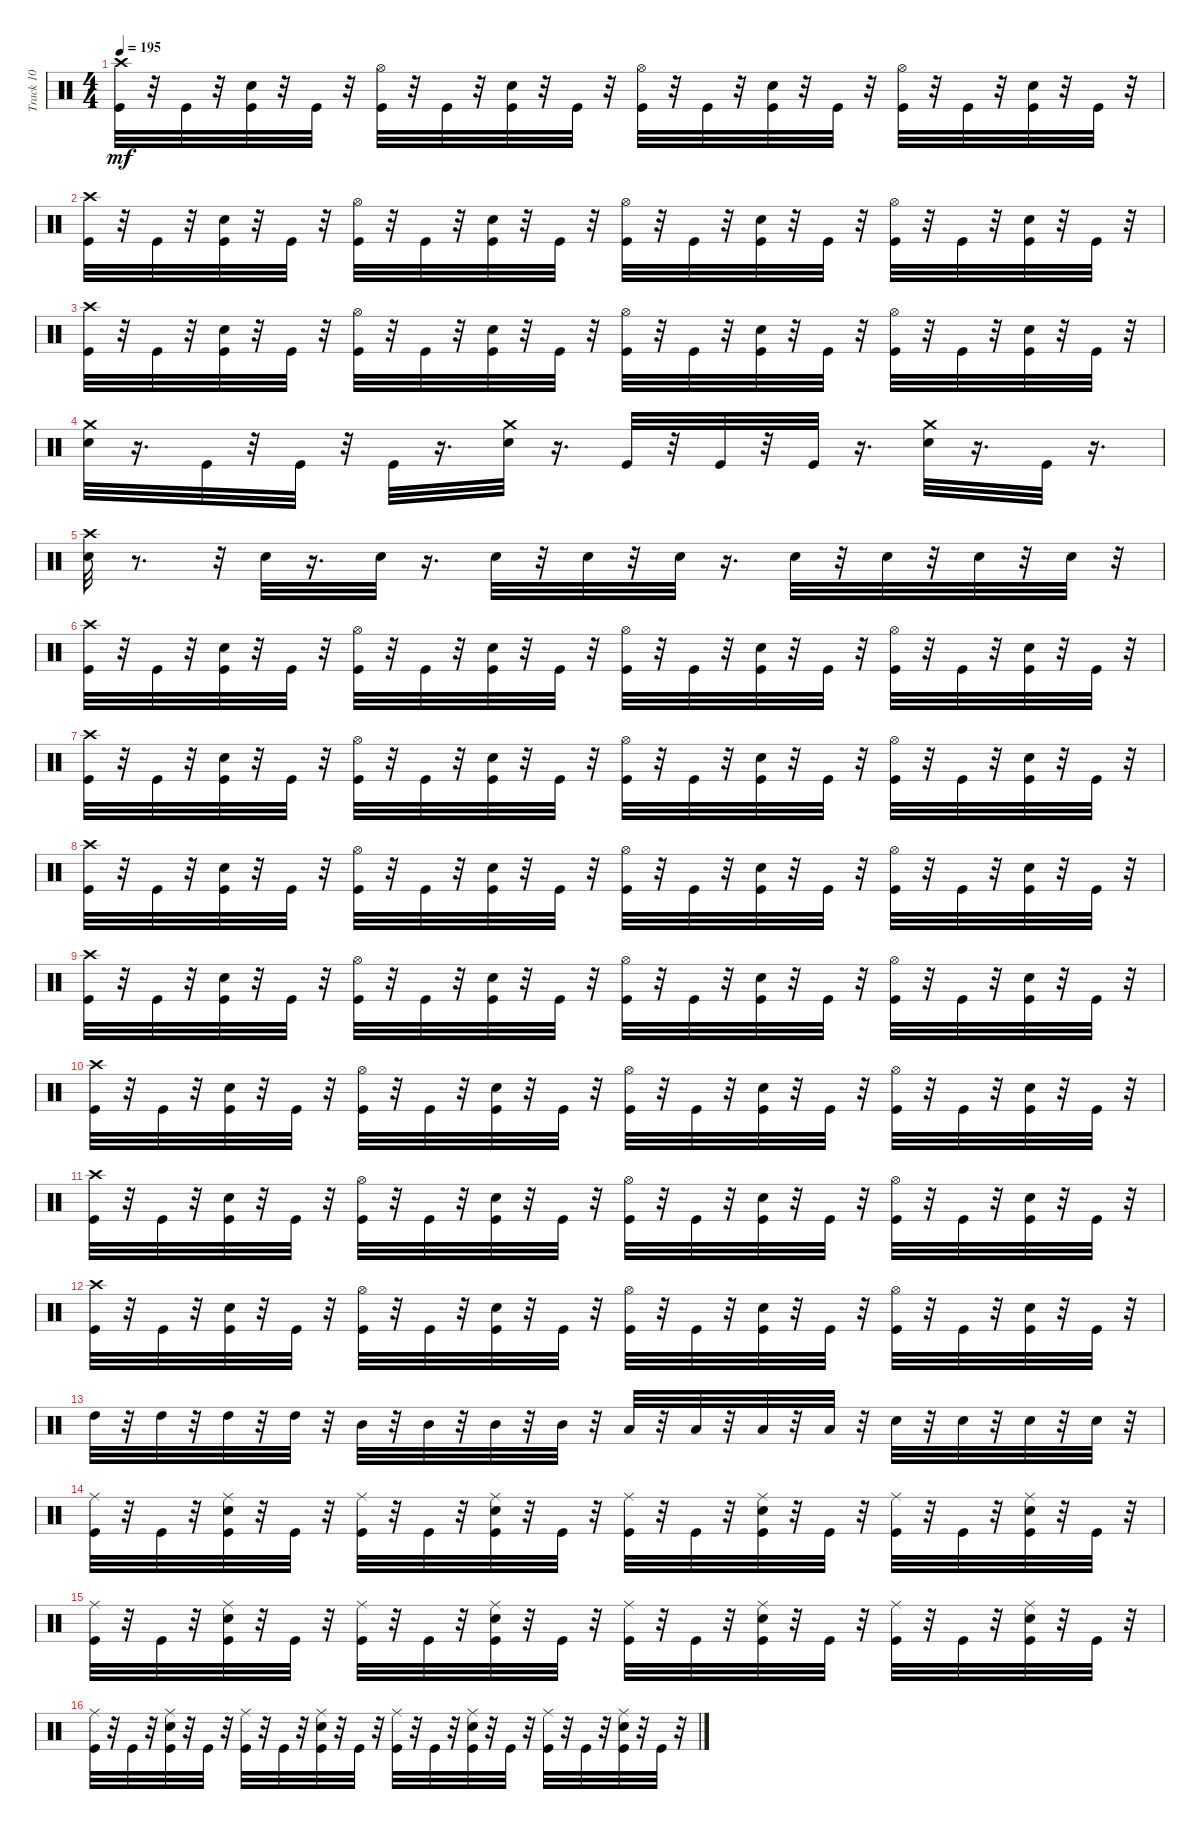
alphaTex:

\track ("Track 10" "Track 10") {instrument percussion}
\staff {score}
\articulation defaults
\ts (4 4)
\tempo 195
\clef neutral
\ks c
("Crash high (hit)" "Kick (hit)").32{dy mf} r.32 "Kick (hit)".32 r.32 ("Electric Snare (hit)" "Kick (hit)").32 r.32 "Kick (hit)".32 r.32 ("Hi-Hat (open)" "Kick (hit)").32 r.32 "Kick (hit)".32 r.32 ("Electric Snare (hit)" "Kick (hit)").32 r.32 "Kick (hit)".32 r.32 ("Hi-Hat (open)" "Kick (hit)").32 r.32 "Kick (hit)".32 r.32 ("Electric Snare (hit)" "Kick (hit)").32 r.32 "Kick (hit)".32 r.32 ("Hi-Hat (open)" "Kick (hit)").32 r.32 "Kick (hit)".32 r.32 ("Electric Snare (hit)" "Kick (hit)").32 r.32 "Kick (hit)".32 r.32 |
("Crash high (hit)" "Kick (hit)").32 r.32 "Kick (hit)".32 r.32 ("Electric Snare (hit)" "Kick (hit)").32 r.32 "Kick (hit)".32 r.32 ("Hi-Hat (open)" "Kick (hit)").32 r.32 "Kick (hit)".32 r.32 ("Electric Snare (hit)" "Kick (hit)").32 r.32 "Kick (hit)".32 r.32 ("Hi-Hat (open)" "Kick (hit)").32 r.32 "Kick (hit)".32 r.32 ("Electric Snare (hit)" "Kick (hit)").32 r.32 "Kick (hit)".32 r.32 ("Hi-Hat (open)" "Kick (hit)").32 r.32 "Kick (hit)".32 r.32 ("Electric Snare (hit)" "Kick (hit)").32 r.32 "Kick (hit)".32 r.32 |
("Crash high (hit)" "Kick (hit)").32 r.32 "Kick (hit)".32 r.32 ("Electric Snare (hit)" "Kick (hit)").32 r.32 "Kick (hit)".32 r.32 ("Hi-Hat (open)" "Kick (hit)").32 r.32 "Kick (hit)".32 r.32 ("Electric Snare (hit)" "Kick (hit)").32 r.32 "Kick (hit)".32 r.32 ("Hi-Hat (open)" "Kick (hit)").32 r.32 "Kick (hit)".32 r.32 ("Electric Snare (hit)" "Kick (hit)").32 r.32 "Kick (hit)".32 r.32 ("Hi-Hat (open)" "Kick (hit)").32 r.32 "Kick (hit)".32 r.32 ("Electric Snare (hit)" "Kick (hit)").32 r.32 "Kick (hit)".32 r.32 |
("Crash medium (hit)" "Electric Snare (hit)").32 r.16{d} "Kick (hit)".32 r.32 "Kick (hit)".32 r.32 "Kick (hit)".32 r.16{d} ("Crash medium (hit)" "Electric Snare (hit)").32 r.16{d} "Kick (hit)".32 r.32 "Kick (hit)".32 r.32 "Kick (hit)".32 r.16{d} ("Electric Snare (hit)" "Crash medium (hit)").32 r.16{d} "Kick (hit)".32 r.16{d} |
("Crash high (hit)" "Electric Snare (hit)").32 r.8{d} r.32 "Electric Snare (hit)".32 r.16{d} "Electric Snare (hit)".32 r.16{d} "Electric Snare (hit)".32 r.32 "Electric Snare (hit)".32 r.32 "Electric Snare (hit)".32 r.16{d} "Electric Snare (hit)".32 r.32 "Electric Snare (hit)".32 r.32 "Electric Snare (hit)".32 r.32 "Electric Snare (hit)".32 r.32 |
("Crash high (hit)" "Kick (hit)").32 r.32 "Kick (hit)".32 r.32 ("Electric Snare (hit)" "Kick (hit)").32 r.32 "Kick (hit)".32 r.32 ("Hi-Hat (open)" "Kick (hit)").32 r.32 "Kick (hit)".32 r.32 ("Electric Snare (hit)" "Kick (hit)").32 r.32 "Kick (hit)".32 r.32 ("Hi-Hat (open)" "Kick (hit)").32 r.32 "Kick (hit)".32 r.32 ("Electric Snare (hit)" "Kick (hit)").32 r.32 "Kick (hit)".32 r.32 ("Hi-Hat (open)" "Kick (hit)").32 r.32 "Kick (hit)".32 r.32 ("Electric Snare (hit)" "Kick (hit)").32 r.32 "Kick (hit)".32 r.32 |
("Crash high (hit)" "Kick (hit)").32 r.32 "Kick (hit)".32 r.32 ("Electric Snare (hit)" "Kick (hit)").32 r.32 "Kick (hit)".32 r.32 ("Hi-Hat (open)" "Kick (hit)").32 r.32 "Kick (hit)".32 r.32 ("Electric Snare (hit)" "Kick (hit)").32 r.32 "Kick (hit)".32 r.32 ("Hi-Hat (open)" "Kick (hit)").32 r.32 "Kick (hit)".32 r.32 ("Electric Snare (hit)" "Kick (hit)").32 r.32 "Kick (hit)".32 r.32 ("Hi-Hat (open)" "Kick (hit)").32 r.32 "Kick (hit)".32 r.32 ("Electric Snare (hit)" "Kick (hit)").32 r.32 "Kick (hit)".32 r.32 |
("Crash high (hit)" "Kick (hit)").32 r.32 "Kick (hit)".32 r.32 ("Electric Snare (hit)" "Kick (hit)").32 r.32 "Kick (hit)".32 r.32 ("Hi-Hat (open)" "Kick (hit)").32 r.32 "Kick (hit)".32 r.32 ("Electric Snare (hit)" "Kick (hit)").32 r.32 "Kick (hit)".32 r.32 ("Hi-Hat (open)" "Kick (hit)").32 r.32 "Kick (hit)".32 r.32 ("Electric Snare (hit)" "Kick (hit)").32 r.32 "Kick (hit)".32 r.32 ("Hi-Hat (open)" "Kick (hit)").32 r.32 "Kick (hit)".32 r.32 ("Electric Snare (hit)" "Kick (hit)").32 r.32 "Kick (hit)".32 r.32 |
("Crash high (hit)" "Kick (hit)").32 r.32 "Kick (hit)".32 r.32 ("Electric Snare (hit)" "Kick (hit)").32 r.32 "Kick (hit)".32 r.32 ("Hi-Hat (open)" "Kick (hit)").32 r.32 "Kick (hit)".32 r.32 ("Electric Snare (hit)" "Kick (hit)").32 r.32 "Kick (hit)".32 r.32 ("Hi-Hat (open)" "Kick (hit)").32 r.32 "Kick (hit)".32 r.32 ("Electric Snare (hit)" "Kick (hit)").32 r.32 "Kick (hit)".32 r.32 ("Hi-Hat (open)" "Kick (hit)").32 r.32 "Kick (hit)".32 r.32 ("Electric Snare (hit)" "Kick (hit)").32 r.32 "Kick (hit)".32 r.32 |
("Crash high (hit)" "Kick (hit)").32 r.32 "Kick (hit)".32 r.32 ("Electric Snare (hit)" "Kick (hit)").32 r.32 "Kick (hit)".32 r.32 ("Hi-Hat (open)" "Kick (hit)").32 r.32 "Kick (hit)".32 r.32 ("Electric Snare (hit)" "Kick (hit)").32 r.32 "Kick (hit)".32 r.32 ("Hi-Hat (open)" "Kick (hit)").32 r.32 "Kick (hit)".32 r.32 ("Electric Snare (hit)" "Kick (hit)").32 r.32 "Kick (hit)".32 r.32 ("Hi-Hat (open)" "Kick (hit)").32 r.32 "Kick (hit)".32 r.32 ("Electric Snare (hit)" "Kick (hit)").32 r.32 "Kick (hit)".32 r.32 |
("Crash high (hit)" "Kick (hit)").32 r.32 "Kick (hit)".32 r.32 ("Electric Snare (hit)" "Kick (hit)").32 r.32 "Kick (hit)".32 r.32 ("Hi-Hat (open)" "Kick (hit)").32 r.32 "Kick (hit)".32 r.32 ("Electric Snare (hit)" "Kick (hit)").32 r.32 "Kick (hit)".32 r.32 ("Hi-Hat (open)" "Kick (hit)").32 r.32 "Kick (hit)".32 r.32 ("Electric Snare (hit)" "Kick (hit)").32 r.32 "Kick (hit)".32 r.32 ("Hi-Hat (open)" "Kick (hit)").32 r.32 "Kick (hit)".32 r.32 ("Electric Snare (hit)" "Kick (hit)").32 r.32 "Kick (hit)".32 r.32 |
("Crash high (hit)" "Kick (hit)").32 r.32 "Kick (hit)".32 r.32 ("Electric Snare (hit)" "Kick (hit)").32 r.32 "Kick (hit)".32 r.32 ("Hi-Hat (open)" "Kick (hit)").32 r.32 "Kick (hit)".32 r.32 ("Electric Snare (hit)" "Kick (hit)").32 r.32 "Kick (hit)".32 r.32 ("Hi-Hat (open)" "Kick (hit)").32 r.32 "Kick (hit)".32 r.32 ("Electric Snare (hit)" "Kick (hit)").32 r.32 "Kick (hit)".32 r.32 ("Hi-Hat (open)" "Kick (hit)").32 r.32 "Kick (hit)".32 r.32 ("Electric Snare (hit)" "Kick (hit)").32 r.32 "Kick (hit)".32 r.32 |
"High Tom (hit)".32 r.32 "High Tom (hit)".32 r.32 "High Tom (hit)".32 r.32 "High Tom (hit)".32 r.32 "Mid Tom (hit)".32 r.32 "Mid Tom (hit)".32 r.32 "Mid Tom (hit)".32 r.32 "Mid Tom (hit)".32 r.32 "Low Tom (hit)".32 r.32 "Low Tom (hit)".32 r.32 "Low Tom (hit)".32 r.32 "Low Tom (hit)".32 r.32 "Electric Snare (hit)".32 r.32 "Electric Snare (hit)".32 r.32 "Electric Snare (hit)".32 r.32 "Electric Snare (hit)".32 r.32 |
("Ride (middle)" "Kick (hit)").32 r.32 "Kick (hit)".32 r.32 ("Electric Snare (hit)" "Kick (hit)" "Ride (middle)").32 r.32 "Kick (hit)".32 r.32 ("Ride (middle)" "Kick (hit)").32 r.32 "Kick (hit)".32 r.32 ("Ride (middle)" "Electric Snare (hit)" "Kick (hit)").32 r.32 "Kick (hit)".32 r.32 ("Ride (middle)" "Kick (hit)").32 r.32 "Kick (hit)".32 r.32 ("Electric Snare (hit)" "Kick (hit)" "Ride (middle)").32 r.32 "Kick (hit)".32 r.32 ("Ride (middle)" "Kick (hit)").32 r.32 "Kick (hit)".32 r.32 ("Ride (middle)" "Electric Snare (hit)" "Kick (hit)").32 r.32 "Kick (hit)".32 r.32 |
("Ride (middle)" "Kick (hit)").32 r.32 "Kick (hit)".32 r.32 ("Electric Snare (hit)" "Kick (hit)" "Ride (middle)").32 r.32 "Kick (hit)".32 r.32 ("Ride (middle)" "Kick (hit)").32 r.32 "Kick (hit)".32 r.32 ("Ride (middle)" "Electric Snare (hit)" "Kick (hit)").32 r.32 "Kick (hit)".32 r.32 ("Ride (middle)" "Kick (hit)").32 r.32 "Kick (hit)".32 r.32 ("Electric Snare (hit)" "Kick (hit)" "Ride (middle)").32 r.32 "Kick (hit)".32 r.32 ("Ride (middle)" "Kick (hit)").32 r.32 "Kick (hit)".32 r.32 ("Ride (middle)" "Electric Snare (hit)" "Kick (hit)").32 r.32 "Kick (hit)".32 r.32 |
("Ride (middle)" "Kick (hit)").32 r.32 "Kick (hit)".32 r.32 ("Electric Snare (hit)" "Kick (hit)" "Ride (middle)").32 r.32 "Kick (hit)".32 r.32 ("Ride (middle)" "Kick (hit)").32 r.32 "Kick (hit)".32 r.32 ("Ride (middle)" "Electric Snare (hit)" "Kick (hit)").32 r.32 "Kick (hit)".32 r.32 ("Ride (middle)" "Kick (hit)").32 r.32 "Kick (hit)".32 r.32 ("Electric Snare (hit)" "Kick (hit)" "Ride (middle)").32 r.32 "Kick (hit)".32 r.32 ("Ride (middle)" "Kick (hit)").32 r.32 "Kick (hit)".32 r.32 ("Ride (middle)" "Electric Snare (hit)" "Kick (hit)").32 r.32 "Kick (hit)".32 r.32
